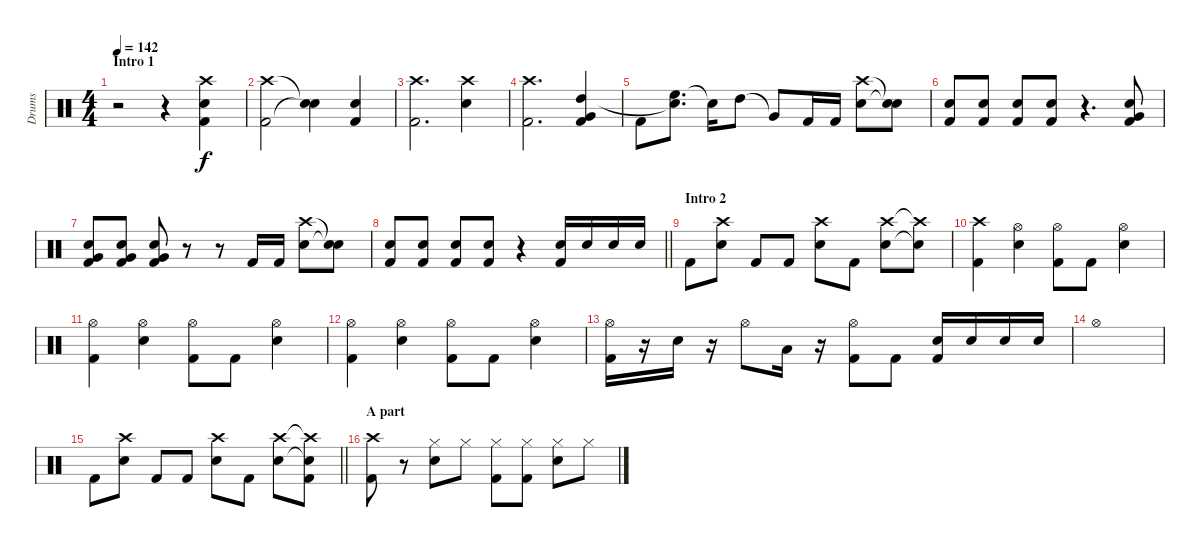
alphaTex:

\track ("Drums" "Drums") {instrument percussion}
\staff {score}
\articulation defaults
\ts (4 4)
\section ("" "Intro 1")
\tempo 142
\clef neutral
\ks c
r.2{dy f} r.4 ("Crash high (hit)" "Snare (hit) 2" "Kick (hit) 2").4{volume 16} |
("Crash high (hit)" "Kick (hit) 2").2 ("Snare (hit)"{t} "Snare (hit)"{t}).4 ("Snare (hit) 2" "Kick (hit) 2").4 |
("Crash high (hit)" "Kick (hit) 2").2{d} ("Crash high (hit)" "Snare (hit) 2").4 |
("Crash high (hit)" "Kick (hit) 2").2{d} ("Very Low Tom (hit)" "High Tom (hit)" "Kick (hit) 2").4 |
"Kick (hit) 2".8 ("High Floor Tom (hit)" "Snare (hit)"{t}).8{d} "Snare (hit)"{t}.16 "High Tom (hit)".8{txt ""} "Very Low Tom (hit)"{t}.8 "Kick (hit) 2".16 "Kick (hit) 2".16 ("Crash high (hit)" "Snare (hit) 2").8 ("Snare (hit)"{t} "Snare (hit)"{t}).8 |
("Snare (hit) 2" "Kick (hit) 2").8 ("Snare (hit) 2" "Kick (hit) 2").8 ("Snare (hit) 2" "Kick (hit) 2").8 ("Snare (hit) 2" "Kick (hit) 2").8 r.4{d} ("Very Low Tom (hit)" "Snare (hit) 2" "Kick (hit) 2").8 |
("Very Low Tom (hit)" "Snare (hit) 2" "Kick (hit) 2").8 ("Very Low Tom (hit)" "Snare (hit) 2" "Kick (hit) 2").8 ("Very Low Tom (hit)" "Snare (hit) 2" "Kick (hit) 2").8 r.8 r.8 "Kick (hit) 2".16 "Kick (hit) 2".16 ("Crash high (hit)" "Snare (hit) 2").8 ("Snare (hit)"{t} "Snare (hit)"{t}).8 |
\barLineRight lightlight
("Snare (hit) 2" "Kick (hit) 2").8 ("Snare (hit) 2" "Kick (hit) 2").8 ("Snare (hit) 2" "Kick (hit) 2").8 ("Snare (hit) 2" "Kick (hit) 2").8 r.4 ("Snare (hit) 2" "Kick (hit) 2").16 "Snare (hit) 2".16 "Snare (hit) 2".16 "Snare (hit) 2".16 |
\section ("" "Intro 2")
"Kick (hit) 2".8 ("Crash high (hit)" "Snare (hit) 2").8 "Kick (hit) 2".8 "Kick (hit) 2".8 ("Crash high (hit)" "Snare (hit) 2").8 "Kick (hit) 2".8 ("Crash high (hit)" "Snare (hit) 2").8 ("Crash high (hit)"{t} "Snare (hit)"{t}).8 |
("Crash high (hit)" "Kick (hit) 2").4 ("Hi-Hat (open)" "Snare (hit) 2").4 ("Hi-Hat (open)" "Kick (hit) 2").8 "Kick (hit) 2".8 ("Hi-Hat (open)" "Snare (hit) 2").4 |
("Hi-Hat (open)" "Kick (hit) 2").4 ("Hi-Hat (open)" "Snare (hit) 2").4 ("Hi-Hat (open)" "Kick (hit) 2").8 "Kick (hit) 2".8 ("Hi-Hat (open)" "Snare (hit) 2").4 |
("Hi-Hat (open)" "Kick (hit) 2").4 ("Hi-Hat (open)" "Snare (hit) 2").4 ("Hi-Hat (open)" "Kick (hit) 2").8 "Kick (hit) 2".8 ("Hi-Hat (open)" "Snare (hit) 2").4 |
("Hi-Hat (open)" "Kick (hit) 2").16 r.16 "Snare (hit) 2".16 r.16 "Hi-Hat (open)".8 "Low Tom (hit)".16 r.16 ("Hi-Hat (open)" "Kick (hit) 2").8 "Kick (hit) 2".8 ("Snare (hit) 2" "Kick (hit) 2").16 "Snare (hit) 2".16 "Snare (hit) 2".16 "Snare (hit) 2".16 |
"Hi-Hat (open)".1 |
\barLineRight lightlight "Kick (hit) 2".8
("Crash high (hit)" "Snare (hit) 2").8 "Kick (hit) 2".8 "Kick (hit) 2".8 ("Crash high (hit)" "Snare (hit) 2").8 "Kick (hit) 2".8 ("Crash high (hit)" "Snare (hit) 2").8 ("Crash high (hit)"{t} "Snare (hit)"{t} "Kick (hit) 2").8 |
\section ("" "A part")
("Crash high (hit)" "Kick (hit) 2").8 r.8 ("Hi-Hat (closed)" "Snare (hit) 2").8 "Hi-Hat (closed)".8 ("Hi-Hat (closed)" "Kick (hit) 2").8 ("Hi-Hat (closed)" "Kick (hit) 2").8 ("Hi-Hat (closed)" "Snare (hit) 2").8 "Hi-Hat (closed)".8
